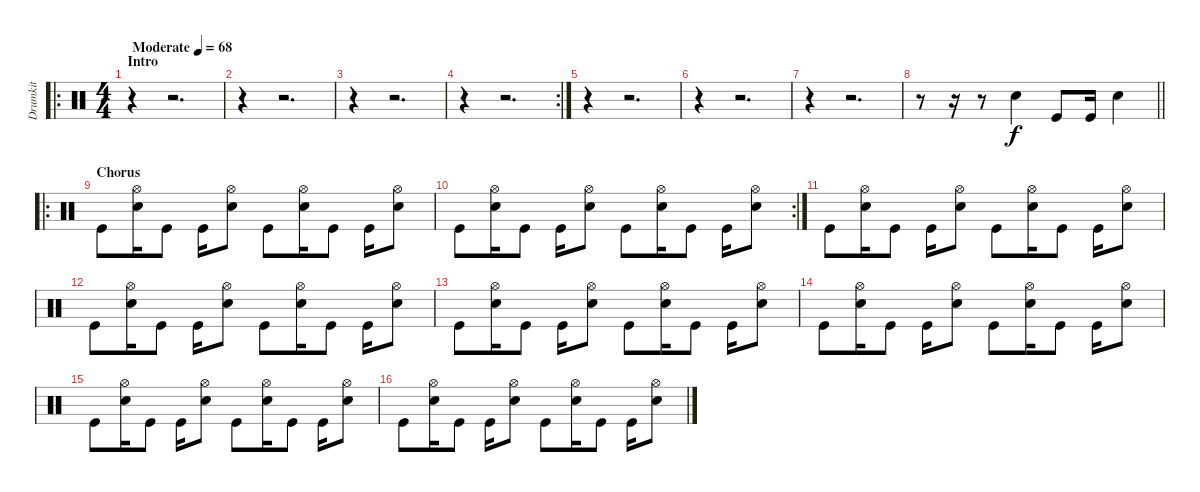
\track ("Drumkit" "Drumkit") {instrument percussion}
\staff {score}
\articulation defaults
\ro
\ts (4 4)
\section ("" "Intro")
\tempo (68 "Moderate")
\clef neutral
\ks c
r.4{dy f} r.2{d} |
r.4 r.2{d} |
r.4 r.2{d} |
\rc 2
r.4 r.2{d} |
r.4 r.2{d} |
r.4 r.2{d} |
r.4 r.2{d} |
\barLineRight lightlight
r.8 r.16 r.8 "Snare (hit) 2".4 "Kick (hit)".8 "Kick (hit)".16 "Snare (hit) 2".4 |
\ro
\section ("" "Chorus")
"Kick (hit)".8 ("Snare (hit) 2" "Hi-Hat (open)").16 "Kick (hit)".8 "Kick (hit)".16 ("Hi-Hat (open)" "Snare (hit) 2").8 "Kick (hit)".8 ("Snare (hit) 2" "Hi-Hat (open)").16 "Kick (hit)".8 "Kick (hit)".16 ("Snare (hit) 2" "Hi-Hat (open)").8 |
\rc 2 "Kick (hit)".8
("Snare (hit) 2" "Hi-Hat (open)").16 "Kick (hit)".8 "Kick (hit)".16 ("Hi-Hat (open)" "Snare (hit) 2").8 "Kick (hit)".8 ("Snare (hit) 2" "Hi-Hat (open)").16 "Kick (hit)".8 "Kick (hit)".16 ("Snare (hit) 2" "Hi-Hat (open)").8 |
"Kick (hit)".8 ("Snare (hit) 2" "Hi-Hat (open)").16 "Kick (hit)".8 "Kick (hit)".16 ("Hi-Hat (open)" "Snare (hit) 2").8 "Kick (hit)".8 ("Snare (hit) 2" "Hi-Hat (open)").16 "Kick (hit)".8 "Kick (hit)".16 ("Snare (hit) 2" "Hi-Hat (open)").8 |
"Kick (hit)".8 ("Snare (hit) 2" "Hi-Hat (open)").16 "Kick (hit)".8 "Kick (hit)".16 ("Hi-Hat (open)" "Snare (hit) 2").8 "Kick (hit)".8 ("Snare (hit) 2" "Hi-Hat (open)").16 "Kick (hit)".8 "Kick (hit)".16 ("Snare (hit) 2" "Hi-Hat (open)").8 |
"Kick (hit)".8 ("Snare (hit) 2" "Hi-Hat (open)").16 "Kick (hit)".8 "Kick (hit)".16 ("Hi-Hat (open)" "Snare (hit) 2").8 "Kick (hit)".8 ("Snare (hit) 2" "Hi-Hat (open)").16 "Kick (hit)".8 "Kick (hit)".16 ("Snare (hit) 2" "Hi-Hat (open)").8 |
"Kick (hit)".8 ("Snare (hit) 2" "Hi-Hat (open)").16 "Kick (hit)".8 "Kick (hit)".16 ("Hi-Hat (open)" "Snare (hit) 2").8 "Kick (hit)".8 ("Snare (hit) 2" "Hi-Hat (open)").16 "Kick (hit)".8 "Kick (hit)".16 ("Snare (hit) 2" "Hi-Hat (open)").8 |
"Kick (hit)".8 ("Snare (hit) 2" "Hi-Hat (open)").16 "Kick (hit)".8 "Kick (hit)".16 ("Hi-Hat (open)" "Snare (hit) 2").8 "Kick (hit)".8 ("Snare (hit) 2" "Hi-Hat (open)").16 "Kick (hit)".8 "Kick (hit)".16 ("Snare (hit) 2" "Hi-Hat (open)").8 |
"Kick (hit)".8 ("Snare (hit) 2" "Hi-Hat (open)").16 "Kick (hit)".8 "Kick (hit)".16 ("Hi-Hat (open)" "Snare (hit) 2").8 "Kick (hit)".8 ("Snare (hit) 2" "Hi-Hat (open)").16 "Kick (hit)".8 "Kick (hit)".16 ("Snare (hit) 2" "Hi-Hat (open)").8
